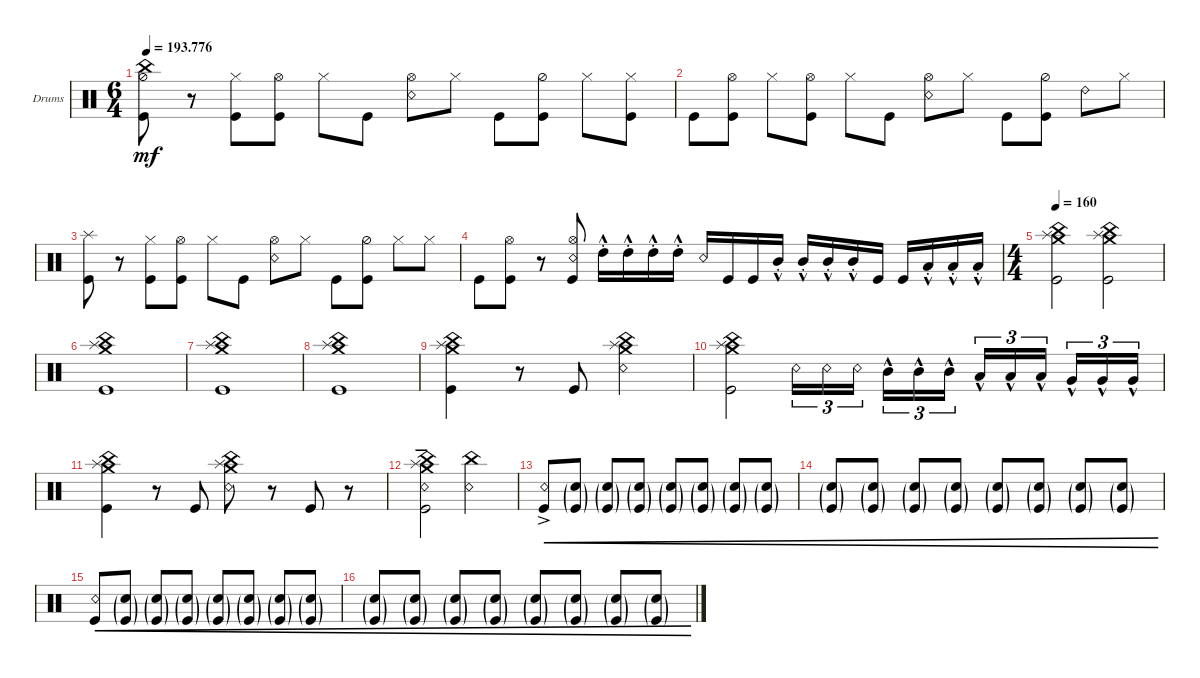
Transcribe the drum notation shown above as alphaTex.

\defaultSystemsLayout 4
\bracketExtendMode groupsimilarinstruments
\firstSystemTrackNameOrientation horizontal
\otherSystemsTrackNameOrientation horizontal
\track ("Drumkit" "Drums") {mute multiBarRest instrument percussion}
\staff {score}
\articulation defaults
\ts (6 4)
\tempo
193.776
\accidentals auto
\clef neutral
\ottava regular
\simile none
\scale
0.333333
\ks c
("Kick (hit)" "Hi-Hat (half)" "China (hit)").8{dy mf} r.8 ("Hi-Hat (closed)" "Kick (hit)").8 ("Kick (hit)" "Hi-Hat (open)").8 "Hi-Hat (closed)".8 "Kick (hit)".8 ("Snare (rim shot)" "Hi-Hat (open)").8 "Hi-Hat (closed)".8 "Kick (hit)".8 ("Kick (hit)" "Hi-Hat (half)").8 "Hi-Hat (closed)".8 ("Hi-Hat (closed)" "Kick (hit)").8 |
\scale
0.333333 "Kick (hit)".8 ("Kick (hit)" "Hi-Hat (open)").8 "Hi-Hat (closed)".8 ("Kick (hit)" "Hi-Hat (open)").8 "Hi-Hat (closed)".8 "Kick (hit)".8 ("Snare (rim shot)" "Hi-Hat (open)").8 "Hi-Hat (closed)".8 "Kick (hit)".8 ("Kick (hit)" "Hi-Hat (half)").8 "Ride (bell) 2".8 "Hi-Hat (closed)".8 |
\scale
0.333333 ("Kick (hit)" "Splash (hit)").8 r.8 ("Hi-Hat (closed)" "Kick (hit)").8 ("Kick (hit)" "Hi-Hat (open)").8 "Hi-Hat (closed)".8 "Kick (hit)".8 ("Snare (rim shot)" "Hi-Hat (open)").8 "Hi-Hat (closed)".8 "Kick (hit)".8 ("Kick (hit)" "Hi-Hat (half)").8 "Hi-Hat (closed)".8 "Hi-Hat (closed)".8 |
\scale
0.333333 "Kick (hit)".8 ("Kick (hit)" "Hi-Hat (open)").8 r.8 ("Kick (hit)" "Hi-Hat (open)" "Snare (rim shot)").8 "High Tom (hit)"{hac st}.16 "High Tom (hit)"{hac st}.16 "High Tom (hit)"{hac st}.16 "High Tom (hit)"{hac st}.16 "Snare (rim shot)".16 "Kick (hit)".16 "Kick (hit)".16 "Mid Tom (hit)"{hac st}.16 "Mid Tom (hit)"{hac st}.16 "Mid Tom (hit)"{hac st}.16 "Mid Tom (hit)"{hac st}.16 "Kick (hit)".16 "Kick (hit)".16 "Low Tom (hit)"{hac st}.16 "Low Tom (hit)"{hac st}.16 "Low Tom (hit)"{hac st}.16 |
\ts (4 4)
\tempo (160 0.0375)
\scale
0.333333 ("Kick (hit)" "China (hit)" "Splash (hit)" "Crash medium (hit)").2 ("Kick (hit)" "China (hit)" "Splash (hit)" "Crash medium (hit)").2 |
("Kick (hit)" "China (hit)" "Splash (hit)" "Crash medium (hit)").1 |
("Kick (hit)" "China (hit)" "Splash (hit)" "Crash medium (hit)").1 |
("Kick (hit)" "China (hit)" "Splash (hit)" "Crash medium (hit)").1 |
("Kick (hit)" "China (hit)" "Splash (hit)" "Crash medium (hit)").4 r.8 "Kick (hit)".8 ("China (hit)" "Splash (hit)" "Crash medium (hit)" "Snare (rim shot)").4 |
("Kick (hit)" "China (hit)" "Splash (hit)" "Crash medium (hit)").2 "Snare (rim shot)".16{tu (3 2)} "Snare (rim shot)".16{tu (3 2)} "Snare (rim shot)".16{tu (3 2)} "Mid Tom (hit)"{hac}.16{tu (3 2)} "Mid Tom (hit)"{hac}.16{tu (3 2)} "Mid Tom (hit)"{hac}.16{tu (3 2)} "Low Tom (hit)"{hac}.16{tu (3 2)} "Low Tom (hit)"{hac}.16{tu (3 2)} "Low Tom (hit)"{hac}.16{tu (3 2)} "Very Low Tom (hit)"{hac}.16{tu (3 2)} "Very Low Tom (hit)"{hac}.16{tu (3 2)} "Very Low Tom (hit)"{hac}.16{tu (3 2)} |
("Kick (hit)" "China (hit)" "Splash (hit)" "Crash medium (hit)").4 r.8 "Kick (hit)".8 ("China (hit)" "Splash (hit)" "Crash medium (hit)" "Snare (rim shot)").8 r.8 "Kick (hit)".8 r.8 |
("Kick (hit)"{ten} "China (hit)" "Splash (hit)" "Crash medium (hit)" "Snare (rim shot)").2 ("Snare (rim shot)" "China (hit)").2 |
("Snare (rim shot)"{ac} "Kick (hit)").8{cre} ("Kick (hit)"{g} "Snare (hit) 2"{g}).8{cre} ("Kick (hit)"{g} "Snare (hit) 2"{g}).8{cre} ("Kick (hit)"{g} "Snare (hit) 2"{g}).8{cre} ("Kick (hit)"{g} "Snare (hit) 2"{g}).8{cre} ("Kick (hit)"{g} "Snare (hit) 2"{g}).8{cre} ("Kick (hit)"{g} "Snare (hit) 2"{g}).8{cre} ("Kick (hit)"{g} "Snare (hit) 2"{g}).8{cre} |
("Kick (hit)"{g} "Snare (hit) 2"{g}).8{cre} ("Kick (hit)"{g} "Snare (hit) 2"{g}).8{cre} ("Kick (hit)"{g} "Snare (hit) 2"{g}).8{cre} ("Kick (hit)"{g} "Snare (hit) 2"{g}).8{cre} ("Kick (hit)"{g} "Snare (hit) 2"{g}).8{cre} ("Kick (hit)"{g} "Snare (hit) 2"{g}).8{cre} ("Kick (hit)"{g} "Snare (hit) 2"{g}).8{cre} ("Kick (hit)"{g} "Snare (hit) 2"{g}).8{cre} |
("Kick (hit)" "Snare (rim shot)").8{cre} ("Kick (hit)"{g} "Snare (hit) 2"{g}).8{cre} ("Kick (hit)"{g} "Snare (hit) 2"{g}).8{cre} ("Kick (hit)"{g} "Snare (hit) 2"{g}).8{cre} ("Snare (hit) 2"{g} "Kick (hit)"{g}).8{cre} ("Snare (hit) 2"{g} "Kick (hit)"{g}).8{cre} ("Snare (hit) 2"{g} "Kick (hit)"{g}).8{cre} ("Snare (hit) 2"{g} "Kick (hit)"{g}).8{cre} |
("Snare (hit) 2"{g} "Kick (hit)"{g}).8{cre} ("Snare (hit) 2"{g} "Kick (hit)"{g}).8{cre} ("Snare (hit) 2"{g} "Kick (hit)"{g}).8{cre} ("Snare (hit) 2"{g} "Kick (hit)"{g}).8{cre} ("Snare (hit) 2"{g} "Kick (hit)"{g}).8{cre} ("Snare (hit) 2"{g} "Kick (hit)"{g}).8{cre} ("Snare (hit) 2"{g} "Kick (hit)"{g}).8{cre} ("Snare (hit) 2"{g} "Kick (hit)"{g}).8{cre}
